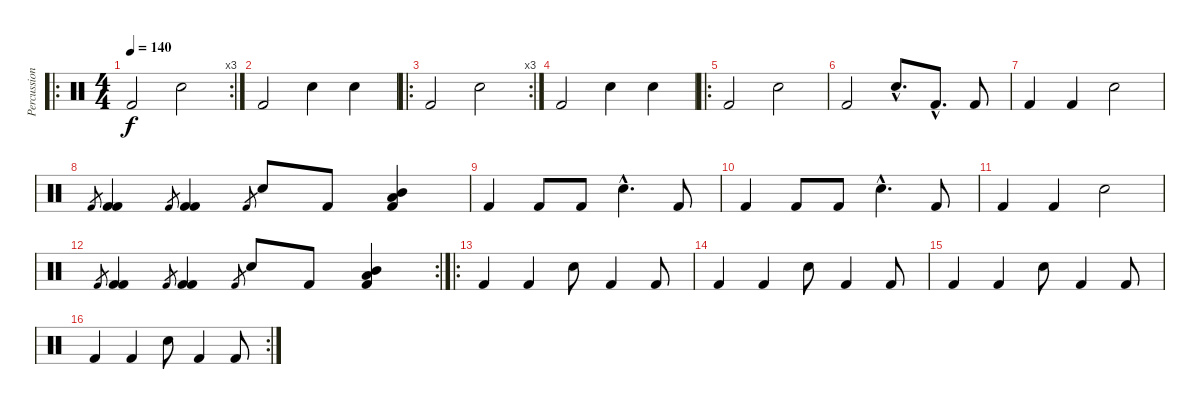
\track ("Percussions" "Percussion") {instrument percussion}
\staff {score}
\articulation defaults
\ro
\rc 3
\ts (4 4)
\tempo 140
\clef neutral
\ks c "Kick (hit) 2".2{dy f} "Snare (hit) 2".2
|
"Kick (hit) 2".2 "Snare (hit) 2".4 "Snare (hit) 2".4 |
\ro
\rc 3 "Kick (hit) 2".2 "Snare (hit) 2".2
|
"Kick (hit) 2".2 "Snare (hit) 2".4 "Snare (hit) 2".4 |
\ro "Kick (hit) 2".2 "Snare (hit) 2".2
|
"Kick (hit) 2".2 "Snare (hit) 2"{hac}.8{d} "Kick (hit) 2"{hac}.8{d} "Kick (hit) 2".8 |
"Kick (hit) 2".4 "Kick (hit) 2".4 "Snare (hit) 2".2 |
"Kick (hit) 2".8{gr} ("Kick (hit) 2" "Kick (hit) 2").4 "Kick (hit) 2".8{gr} ("Kick (hit) 2" "Kick (hit) 2").4 "Kick (hit) 2".8{gr} "Snare (hit) 2".8 "Kick (hit) 2".8 ("Mid Tom (hit)" "Low Tom (hit)" "Kick (hit) 2").4 |
"Kick (hit) 2".4 "Kick (hit) 2".8 "Kick (hit) 2".8 "Snare (hit) 2"{hac}.4{d} "Kick (hit) 2".8 |
"Kick (hit) 2".4 "Kick (hit) 2".8 "Kick (hit) 2".8 "Snare (hit) 2"{hac}.4{d} "Kick (hit) 2".8 |
"Kick (hit) 2".4 "Kick (hit) 2".4 "Snare (hit) 2".2 |
\rc 2 "Kick (hit) 2".8{gr}
("Kick (hit) 2" "Kick (hit) 2").4 "Kick (hit) 2".8{gr} ("Kick (hit) 2" "Kick (hit) 2").4 "Kick (hit) 2".8{gr} "Snare (hit) 2".8 "Kick (hit) 2".8 ("Mid Tom (hit)" "Low Tom (hit)" "Kick (hit) 2").4 |
\ro "Kick (hit) 2".4 "Kick (hit) 2".4 "Snare (hit) 2".8 "Kick (hit) 2".4 "Kick (hit) 2".8
|
"Kick (hit) 2".4 "Kick (hit) 2".4 "Snare (hit) 2".8 "Kick (hit) 2".4 "Kick (hit) 2".8 |
"Kick (hit) 2".4 "Kick (hit) 2".4 "Snare (hit) 2".8 "Kick (hit) 2".4 "Kick (hit) 2".8 |
\rc 2 "Kick (hit) 2".4 "Kick (hit) 2".4 "Snare (hit) 2".8 "Kick (hit) 2".4 "Kick (hit) 2".8
